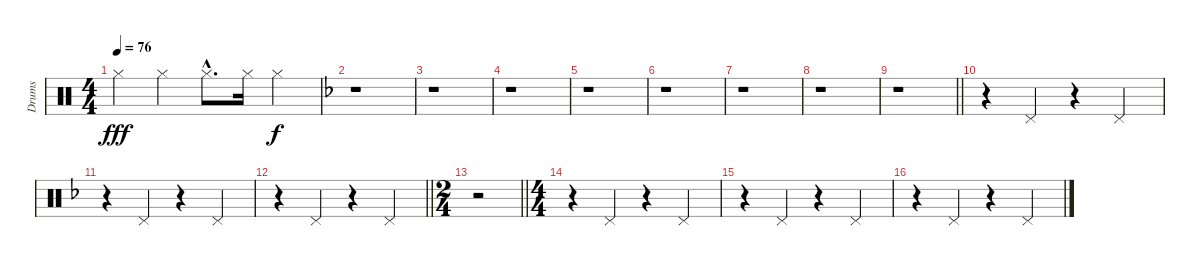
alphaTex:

\track ("Drums" "Drums") {instrument percussion}
\staff {score}
\articulation defaults
\ts (4 4)
\tempo 76
\clef neutral
\ks c "Hi-Hat (closed)".4{dy fff} "Hi-Hat (closed)".4 "Hi-Hat (closed)"{hac}.8{d} "Hi-Hat (closed)".16 "Hi-Hat (closed)".4{dy f}
|
\ks f
r.1 |
r.1 |
r.1 |
r.1 |
r.1 |
r.1 |
r.1 |
\barLineRight lightlight
r.1 |
r.4 "Pedal Hi-Hat (hit)".4 r.4 "Pedal Hi-Hat (hit)".4 |
r.4 "Pedal Hi-Hat (hit)".4 r.4 "Pedal Hi-Hat (hit)".4 |
\barLineRight lightlight
r.4 "Pedal Hi-Hat (hit)".4 r.4 "Pedal Hi-Hat (hit)".4 |
\ts (2 4)
\barLineRight lightlight
r.2 |
\ts (4 4)
r.4 "Pedal Hi-Hat (hit)".4 r.4 "Pedal Hi-Hat (hit)".4 |
r.4 "Pedal Hi-Hat (hit)".4 r.4 "Pedal Hi-Hat (hit)".4 |
r.4 "Pedal Hi-Hat (hit)".4 r.4 "Pedal Hi-Hat (hit)".4
